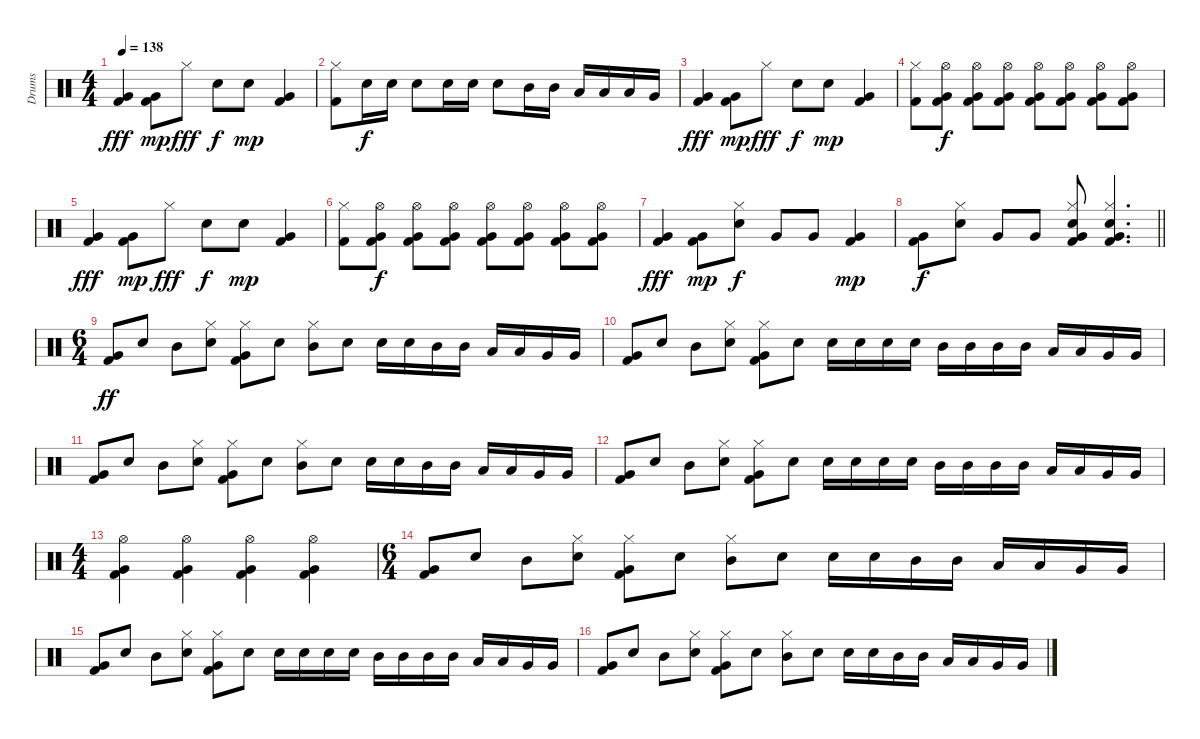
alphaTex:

\track ("Drums" "Drums") {instrument percussion}
\staff {score}
\articulation defaults
\ts (4 4)
\tempo 138
\clef neutral
\ks c
("Very Low Tom (hit)" "Kick (hit) 2").4{dy fff} ("Very Low Tom (hit)" "Kick (hit) 2").8{dy mp} "Hi-Hat (closed)".8{dy fff} "Electric Snare (hit)".8{dy f} "Electric Snare (hit)".8{dy mp} ("Very Low Tom (hit)" "Kick (hit) 2").4 |
("Hi-Hat (closed)" "Kick (hit) 2").8 "Electric Snare (hit)".16{dy f} "Electric Snare (hit)".16 "Electric Snare (hit)".8 "Electric Snare (hit)".16 "Electric Snare (hit)".16 "Electric Snare (hit)".8 "Mid Tom (hit)".16 "Mid Tom (hit)".16 "Low Tom (hit)".16 "Low Tom (hit)".16 "Low Tom (hit)".16 "Very Low Tom (hit)".16 |
("Very Low Tom (hit)" "Kick (hit) 2").4{dy fff} ("Very Low Tom (hit)" "Kick (hit) 2").8{dy mp} "Hi-Hat (closed)".8{dy fff} "Electric Snare (hit)".8{dy f} "Electric Snare (hit)".8{dy mp} ("Very Low Tom (hit)" "Kick (hit) 2").4 |
("Hi-Hat (closed)" "Kick (hit) 2").8 ("Hi-Hat (open)" "Very Low Tom (hit)" "Kick (hit) 2").8{dy f} ("Hi-Hat (open)" "Very Low Tom (hit)" "Kick (hit) 2").8 ("Hi-Hat (open)" "Very Low Tom (hit)" "Kick (hit) 2").8 ("Hi-Hat (open)" "Very Low Tom (hit)" "Kick (hit) 2").8 ("Hi-Hat (open)" "Very Low Tom (hit)" "Kick (hit) 2").8 ("Hi-Hat (open)" "Very Low Tom (hit)" "Kick (hit) 2").8 ("Hi-Hat (open)" "Very Low Tom (hit)" "Kick (hit) 2").8 |
("Very Low Tom (hit)" "Kick (hit) 2").4{dy fff} ("Very Low Tom (hit)" "Kick (hit) 2").8{dy mp} "Hi-Hat (closed)".8{dy fff} "Electric Snare (hit)".8{dy f} "Electric Snare (hit)".8{dy mp} ("Very Low Tom (hit)" "Kick (hit) 2").4 |
("Hi-Hat (closed)" "Kick (hit) 2").8 ("Hi-Hat (open)" "Very Low Tom (hit)" "Kick (hit) 2").8{dy f} ("Hi-Hat (open)" "Very Low Tom (hit)" "Kick (hit) 2").8 ("Hi-Hat (open)" "Very Low Tom (hit)" "Kick (hit) 2").8 ("Hi-Hat (open)" "Very Low Tom (hit)" "Kick (hit) 2").8 ("Hi-Hat (open)" "Very Low Tom (hit)" "Kick (hit) 2").8 ("Hi-Hat (open)" "Very Low Tom (hit)" "Kick (hit) 2").8 ("Hi-Hat (open)" "Very Low Tom (hit)" "Kick (hit) 2").8 |
("Very Low Tom (hit)" "Kick (hit) 2").4{dy fff} ("Very Low Tom (hit)" "Kick (hit) 2").8{dy mp} ("Hi-Hat (closed)" "Electric Snare (hit)").8{dy f} "Very Low Tom (hit)".8 "Very Low Tom (hit)".8 ("Very Low Tom (hit)" "Kick (hit) 2").4{dy mp} |
\barLineRight lightlight
("Very Low Tom (hit)" "Kick (hit) 2").8{dy f} ("Hi-Hat (closed)" "Electric Snare (hit)").8 "Very Low Tom (hit)".8 "Very Low Tom (hit)".8 ("Hi-Hat (closed)" "Electric Snare (hit)" "Very Low Tom (hit)" "Kick (hit) 2").8 ("Hi-Hat (closed)" "Electric Snare (hit)" "Very Low Tom (hit)" "Kick (hit) 2").4{d} |
\ts (6 4)
("Very Low Tom (hit)" "Kick (hit) 2").8{dy ff} "Electric Snare (hit)".8 "Mid Tom (hit)".8 ("Hi-Hat (closed)" "Electric Snare (hit)").8 ("Hi-Hat (closed)" "Very Low Tom (hit)" "Kick (hit) 2").8 "Electric Snare (hit)".8 ("Hi-Hat (closed)" "Mid Tom (hit)").8 "Electric Snare (hit)".8 "Electric Snare (hit)".16 "Electric Snare (hit)".16 "Mid Tom (hit)".16 "Mid Tom (hit)".16 "Low Tom (hit)".16 "Low Tom (hit)".16 "Very Low Tom (hit)".16 "Very Low Tom (hit)".16 |
("Very Low Tom (hit)" "Kick (hit) 2").8 "Electric Snare (hit)".8 "Mid Tom (hit)".8 ("Hi-Hat (closed)" "Electric Snare (hit)").8 ("Hi-Hat (closed)" "Very Low Tom (hit)" "Kick (hit) 2").8 "Electric Snare (hit)".8 "Electric Snare (hit)".16 "Electric Snare (hit)".16 "Electric Snare (hit)".16 "Electric Snare (hit)".16 "Mid Tom (hit)".16 "Mid Tom (hit)".16 "Mid Tom (hit)".16 "Mid Tom (hit)".16 "Low Tom (hit)".16 "Low Tom (hit)".16 "Very Low Tom (hit)".16 "Very Low Tom (hit)".16 |
("Very Low Tom (hit)" "Kick (hit) 2").8 "Electric Snare (hit)".8 "Mid Tom (hit)".8 ("Hi-Hat (closed)" "Electric Snare (hit)").8 ("Hi-Hat (closed)" "Very Low Tom (hit)" "Kick (hit) 2").8 "Electric Snare (hit)".8 ("Hi-Hat (closed)" "Mid Tom (hit)").8 "Electric Snare (hit)".8 "Electric Snare (hit)".16 "Electric Snare (hit)".16 "Mid Tom (hit)".16 "Mid Tom (hit)".16 "Low Tom (hit)".16 "Low Tom (hit)".16 "Very Low Tom (hit)".16 "Very Low Tom (hit)".16 |
("Very Low Tom (hit)" "Kick (hit) 2").8 "Electric Snare (hit)".8 "Mid Tom (hit)".8 ("Hi-Hat (closed)" "Electric Snare (hit)").8 ("Hi-Hat (closed)" "Very Low Tom (hit)" "Kick (hit) 2").8 "Electric Snare (hit)".8 "Electric Snare (hit)".16 "Electric Snare (hit)".16 "Electric Snare (hit)".16 "Electric Snare (hit)".16 "Mid Tom (hit)".16 "Mid Tom (hit)".16 "Mid Tom (hit)".16 "Mid Tom (hit)".16 "Low Tom (hit)".16 "Low Tom (hit)".16 "Very Low Tom (hit)".16 "Very Low Tom (hit)".16 |
\ts (4 4)
("Hi-Hat (open)" "Very Low Tom (hit)" "Kick (hit) 2").4 ("Hi-Hat (open)" "Very Low Tom (hit)" "Kick (hit) 2").4 ("Hi-Hat (open)" "Very Low Tom (hit)" "Kick (hit) 2").4 ("Hi-Hat (open)" "Very Low Tom (hit)" "Kick (hit) 2").4 |
\ts (6 4)
("Very Low Tom (hit)" "Kick (hit) 2").8 "Electric Snare (hit)".8 "Mid Tom (hit)".8 ("Hi-Hat (closed)" "Electric Snare (hit)").8 ("Hi-Hat (closed)" "Very Low Tom (hit)" "Kick (hit) 2").8 "Electric Snare (hit)".8 ("Hi-Hat (closed)" "Mid Tom (hit)").8 "Electric Snare (hit)".8 "Electric Snare (hit)".16 "Electric Snare (hit)".16 "Mid Tom (hit)".16 "Mid Tom (hit)".16 "Low Tom (hit)".16 "Low Tom (hit)".16 "Very Low Tom (hit)".16 "Very Low Tom (hit)".16 |
("Very Low Tom (hit)" "Kick (hit) 2").8 "Electric Snare (hit)".8 "Mid Tom (hit)".8 ("Hi-Hat (closed)" "Electric Snare (hit)").8 ("Hi-Hat (closed)" "Very Low Tom (hit)" "Kick (hit) 2").8 "Electric Snare (hit)".8 "Electric Snare (hit)".16 "Electric Snare (hit)".16 "Electric Snare (hit)".16 "Electric Snare (hit)".16 "Mid Tom (hit)".16 "Mid Tom (hit)".16 "Mid Tom (hit)".16 "Mid Tom (hit)".16 "Low Tom (hit)".16 "Low Tom (hit)".16 "Very Low Tom (hit)".16 "Very Low Tom (hit)".16 |
("Very Low Tom (hit)" "Kick (hit) 2").8 "Electric Snare (hit)".8 "Mid Tom (hit)".8 ("Hi-Hat (closed)" "Electric Snare (hit)").8 ("Hi-Hat (closed)" "Very Low Tom (hit)" "Kick (hit) 2").8 "Electric Snare (hit)".8 ("Hi-Hat (closed)" "Mid Tom (hit)").8 "Electric Snare (hit)".8 "Electric Snare (hit)".16 "Electric Snare (hit)".16 "Mid Tom (hit)".16 "Mid Tom (hit)".16 "Low Tom (hit)".16 "Low Tom (hit)".16 "Very Low Tom (hit)".16 "Very Low Tom (hit)".16
